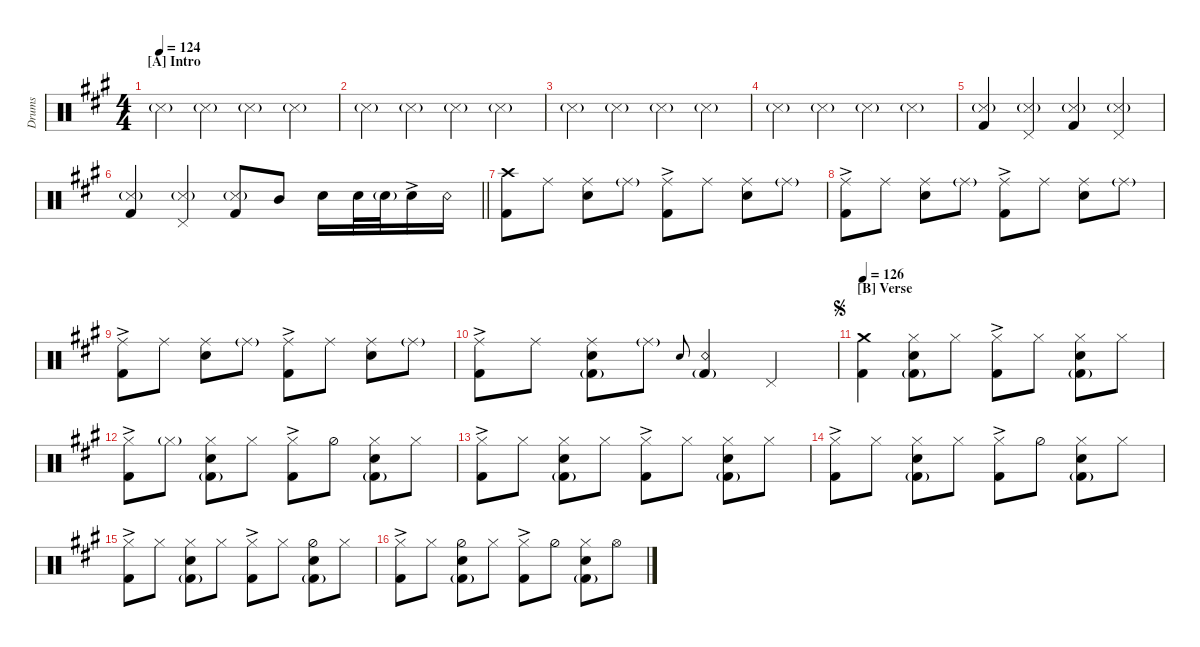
\hideDynamics
\bracketExtendMode groupsimilarinstruments
\otherSystemsTrackNameOrientation horizontal
\track ("Drumkit" "Drums") {defaultSystemsLayout 4 instrument percussion}
\staff {score}
\articulation defaults
\ts (4 4)
\section ("A" "Intro")
\tempo 124
\clef neutral
\ks a "Snare (side stick) 3"{g acc forcenatural}.4{dy mp beam Down} "Snare (side stick) 3"{g acc forcenatural}.4{beam Down} "Snare (side stick) 3"{g acc forcenatural}.4{beam Down} "Snare (side stick) 3"{g acc forcenatural}.4{beam Down}
|
"Snare (side stick) 3"{g acc forcenatural}.4{beam Down} "Snare (side stick) 3"{g acc forcenatural}.4{beam Down} "Snare (side stick) 3"{g acc forcenatural}.4{beam Down} "Snare (side stick) 3"{g acc forcenatural}.4{beam Down} |
"Snare (side stick) 3"{g acc forcenatural}.4{beam Down} "Snare (side stick) 3"{g acc forcenatural}.4{beam Down} "Snare (side stick) 3"{g acc forcenatural}.4{beam Down} "Snare (side stick) 3"{g acc forcenatural}.4{beam Down} |
"Snare (side stick) 3"{g acc forcenatural}.4{beam Down} "Snare (side stick) 3"{g acc forcenatural}.4{beam Down} "Snare (side stick) 3"{g acc forcenatural}.4{beam Down} "Snare (side stick) 3"{g acc forcenatural}.4{beam Down} |
("Kick (hit) 2"{acc forcenatural} "Snare (side stick) 3"{g acc forcenatural}).4{dy mf beam Up} ("Pedal Hi-Hat (hit)"{acc forcenatural} "Snare (side stick) 3"{g acc forcenatural}).4{beam Up} ("Kick (hit) 2"{acc forcenatural} "Snare (side stick) 3"{g acc forcenatural}).4{beam Up} ("Pedal Hi-Hat (hit)"{acc forcenatural} "Snare (side stick) 3"{g acc forcenatural}).4{beam Up} |
\barLineRight lightlight
("Kick (hit) 2"{acc forcenatural} "Snare (side stick) 3"{g acc forcenatural}).4{beam Up} ("Pedal Hi-Hat (hit)"{acc forcenatural} "Snare (side stick) 3"{g acc forcenatural}).4{beam Up} ("Kick (hit) 2"{acc forcenatural} "Snare (side stick) 3"{g acc forcenatural}).8{beam Up} "Mid Tom (hit)"{acc forcenatural}.8{dy mp beam Up} "Snare (hit) 2"{acc forcenatural}.16{beam Down} "Snare (hit) 2"{acc forcenatural}.32{beam Down} "Snare (hit) 2"{g acc forcenatural}.32{beam Down} "Snare (hit) 2"{ac acc forcenatural}.16{dy mf beam Down} "Snare (rim shot)"{acc forcenatural}.16{beam Down} |
("Crash high (hit)"{acc forcenatural} "Kick (hit) 2"{acc forcenatural}).8{dy f beam Down} "Ride (middle)"{acc forcenatural}.8{beam Down} ("Ride (middle)"{acc forcenatural} "Snare (hit) 2"{acc forcenatural}).8{beam Down} "Ride (middle)"{g acc forcenatural}.8{beam Down} ("Ride (middle)"{ac acc forcenatural} "Kick (hit) 2"{acc forcenatural}).8{beam Down} "Ride (middle)"{acc forcenatural}.8{beam Down} ("Ride (middle)"{acc forcenatural} "Snare (hit) 2"{acc forcenatural}).8{beam Down} "Ride (middle)"{g acc forcenatural}.8{beam Down} |
("Ride (middle)"{ac acc forcenatural} "Kick (hit) 2"{acc forcenatural}).8{beam Down} "Ride (middle)"{acc forcenatural}.8{beam Down} ("Ride (middle)"{acc forcenatural} "Snare (hit) 2"{acc forcenatural}).8{beam Down} "Ride (middle)"{g acc forcenatural}.8{beam Down} ("Ride (middle)"{ac acc forcenatural} "Kick (hit) 2"{acc forcenatural}).8{beam Down} "Ride (middle)"{acc forcenatural}.8{beam Down} ("Ride (middle)"{acc forcenatural} "Snare (hit) 2"{acc forcenatural}).8{beam Down} "Ride (middle)"{g acc forcenatural}.8{beam Down} |
("Ride (middle)"{ac acc forcenatural} "Kick (hit) 2"{acc forcenatural}).8{beam Down} "Ride (middle)"{acc forcenatural}.8{beam Down} ("Ride (middle)"{acc forcenatural} "Snare (hit) 2"{acc forcenatural}).8{beam Down} "Ride (middle)"{g acc forcenatural}.8{beam Down} ("Ride (middle)"{ac acc forcenatural} "Kick (hit) 2"{acc forcenatural}).8{beam Down} "Ride (middle)"{acc forcenatural}.8{beam Down} ("Ride (middle)"{acc forcenatural} "Snare (hit) 2"{acc forcenatural}).8{beam Down} "Ride (middle)"{g acc forcenatural}.8{beam Down} |
("Kick (hit) 2"{acc forcenatural} "Ride (middle)"{ac acc forcenatural}).8{beam Down} "Ride (middle)"{acc forcenatural}.8{beam Down} ("Ride (middle)"{acc forcenatural} "Snare (hit) 2"{acc forcenatural} "Kick (hit) 2"{g acc forcenatural}).8{beam Down} "Ride (middle)"{g acc forcenatural}.8{beam Down} "Snare (hit) 2"{acc forcenatural}.8{gr onbeat beam Up} ("Snare (rim shot)"{acc forcenatural} "Kick (hit) 2"{g acc forcenatural}).4{beam Up} "Pedal Hi-Hat (hit)"{acc forcenatural}.4{beam Up} |
\section ("B" "Verse")
\jump segno
\tempo 126
("Kick (hit) 2"{acc forcenatural} "Crash medium (hit)"{acc forcenatural}).4{beam Down} ("Snare (hit) 2"{acc forcenatural} "Kick (hit) 2"{g acc forcenatural} "Hi-Hat (closed)"{acc forcenatural}).8{beam Down} "Hi-Hat (closed)"{acc forcenatural}.8{beam Down} ("Kick (hit) 2"{acc forcenatural} "Hi-Hat (closed)"{ac acc forcenatural}).8{beam Down} "Hi-Hat (closed)"{acc forcenatural}.8{beam Down} ("Snare (hit) 2"{acc forcenatural} "Kick (hit) 2"{g acc forcenatural} "Hi-Hat (closed)"{acc forcenatural}).8{beam Down} "Hi-Hat (closed)"{acc forcenatural}.8{beam Down} |
("Kick (hit) 2"{acc forcenatural} "Hi-Hat (closed)"{ac acc forcenatural}).8{beam Down} "Hi-Hat (closed)"{g acc forcenatural}.8{beam Down} ("Snare (hit) 2"{acc forcenatural} "Kick (hit) 2"{g acc forcenatural} "Hi-Hat (closed)"{acc forcenatural}).8{beam Down} "Hi-Hat (closed)"{acc forcenatural}.8{beam Down} ("Kick (hit) 2"{acc forcenatural} "Hi-Hat (closed)"{ac acc forcenatural}).8{beam Down} "Hi-Hat (half)"{acc forcenatural}.8{beam Down} ("Snare (hit) 2"{acc forcenatural} "Kick (hit) 2"{g acc forcenatural} "Hi-Hat (closed)"{acc forcenatural}).8{beam Down} "Hi-Hat (closed)"{acc forcenatural}.8{beam Down} |
("Kick (hit) 2"{acc forcenatural} "Hi-Hat (closed)"{ac acc forcenatural}).8{beam Down} "Hi-Hat (closed)"{acc forcenatural}.8{beam Down} ("Snare (hit) 2"{acc forcenatural} "Kick (hit) 2"{g acc forcenatural} "Hi-Hat (closed)"{acc forcenatural}).8{beam Down} "Hi-Hat (closed)"{acc forcenatural}.8{beam Down} ("Kick (hit) 2"{acc forcenatural} "Hi-Hat (closed)"{ac acc forcenatural}).8{beam Down} "Hi-Hat (closed)"{acc forcenatural}.8{beam Down} ("Snare (hit) 2"{acc forcenatural} "Kick (hit) 2"{g acc forcenatural} "Hi-Hat (closed)"{acc forcenatural}).8{beam Down} "Hi-Hat (closed)"{acc forcenatural}.8{beam Down} |
("Kick (hit) 2"{acc forcenatural} "Hi-Hat (closed)"{ac acc forcenatural}).8{beam Down} "Hi-Hat (closed)"{acc forcenatural}.8{beam Down} ("Snare (hit) 2"{acc forcenatural} "Kick (hit) 2"{g acc forcenatural} "Hi-Hat (closed)"{acc forcenatural}).8{beam Down} "Hi-Hat (closed)"{acc forcenatural}.8{beam Down} ("Kick (hit) 2"{acc forcenatural} "Hi-Hat (closed)"{ac acc forcenatural}).8{beam Down} "Hi-Hat (half)"{acc forcenatural}.8{beam Down} ("Snare (hit) 2"{acc forcenatural} "Kick (hit) 2"{g acc forcenatural} "Hi-Hat (closed)"{acc forcenatural}).8{beam Down} "Hi-Hat (closed)"{acc forcenatural}.8{beam Down} |
("Kick (hit) 2"{acc forcenatural} "Hi-Hat (closed)"{ac acc forcenatural}).8{beam Down} "Hi-Hat (closed)"{acc forcenatural}.8{beam Down} ("Snare (hit) 2"{acc forcenatural} "Kick (hit) 2"{g acc forcenatural} "Hi-Hat (closed)"{acc forcenatural}).8{beam Down} "Hi-Hat (closed)"{acc forcenatural}.8{beam Down} ("Kick (hit) 2"{acc forcenatural} "Hi-Hat (closed)"{ac acc forcenatural}).8{beam Down} "Hi-Hat (closed)"{acc forcenatural}.8{beam Down} ("Snare (hit) 2"{acc forcenatural} "Kick (hit) 2"{g acc forcenatural} "Hi-Hat (half)"{acc forcenatural}).8{beam Down} "Hi-Hat (closed)"{acc forcenatural}.8{beam Down} |
("Kick (hit) 2"{acc forcenatural} "Hi-Hat (closed)"{ac acc forcenatural}).8{beam Down} "Hi-Hat (closed)"{acc forcenatural}.8{beam Down} ("Snare (hit) 2"{acc forcenatural} "Kick (hit) 2"{g acc forcenatural} "Hi-Hat (half)"{acc forcenatural}).8{beam Down} "Hi-Hat (closed)"{acc forcenatural}.8{beam Down} ("Kick (hit) 2"{acc forcenatural} "Hi-Hat (closed)"{ac acc forcenatural}).8{beam Down} "Hi-Hat (half)"{acc forcenatural}.8{beam Down} ("Snare (hit) 2"{acc forcenatural} "Kick (hit) 2"{g acc forcenatural} "Hi-Hat (closed)"{acc forcenatural}).8{beam Down} "Hi-Hat (open)"{acc forcenatural}.8{beam Down}
